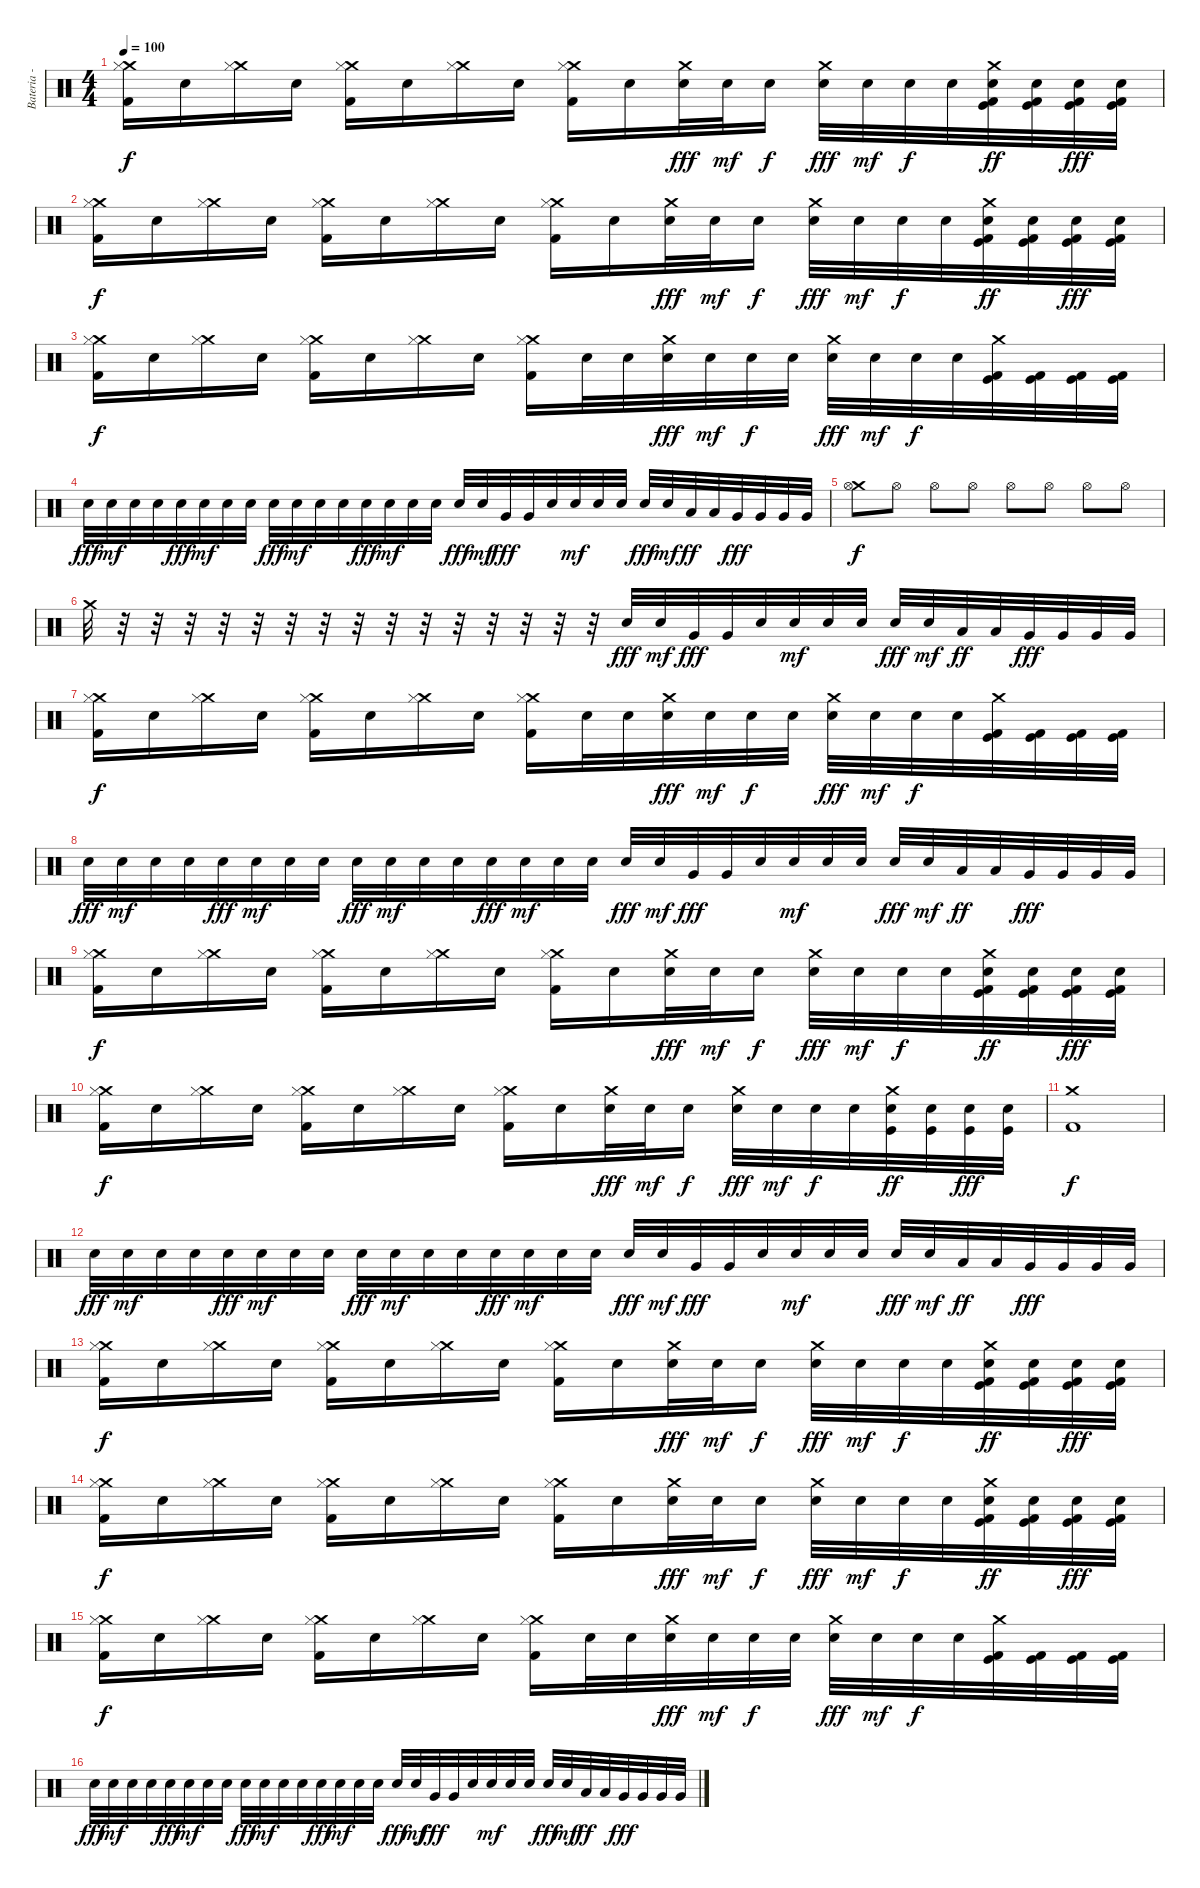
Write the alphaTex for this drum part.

\track ("Bateria - Drums - Searching after F Mike" "Bateria - ") {instrument percussion}
\staff {score}
\articulation defaults
\ts (4 4)
\tempo 100
\clef neutral
\ks c
("Crash medium (hit)" "Hi-Hat (closed)" "Kick (hit) 2").16{dy f} "Electric Snare (hit)".16 ("Crash medium (hit)" "Hi-Hat (closed)").16 "Electric Snare (hit)".16 ("Crash medium (hit)" "Hi-Hat (closed)" "Kick (hit) 2").16 "Electric Snare (hit)".16 ("Crash medium (hit)" "Hi-Hat (closed)").16 "Electric Snare (hit)".16 ("Crash medium (hit)" "Hi-Hat (closed)" "Kick (hit) 2").16 "Electric Snare (hit)".16 ("Crash medium (hit)" "Electric Snare (hit)").32{dy fff} "Electric Snare (hit)".32{dy mf} "Electric Snare (hit)".16{dy f} ("Crash medium (hit)" "Electric Snare (hit)").32{dy fff} "Electric Snare (hit)".32{dy mf} "Electric Snare (hit)".32{dy f} "Electric Snare (hit)".32 ("Crash medium (hit)" "Kick (hit) 2" "Electric Snare (hit)" "Kick (hit)").32{dy ff} ("Kick (hit) 2" "Electric Snare (hit)" "Kick (hit)").32 ("Kick (hit) 2" "Electric Snare (hit)" "Kick (hit)").32{dy fff} ("Kick (hit) 2" "Electric Snare (hit)" "Kick (hit)").32 |
("Crash medium (hit)" "Hi-Hat (closed)" "Kick (hit) 2").16{dy f} "Electric Snare (hit)".16 ("Crash medium (hit)" "Hi-Hat (closed)").16 "Electric Snare (hit)".16 ("Crash medium (hit)" "Hi-Hat (closed)" "Kick (hit) 2").16 "Electric Snare (hit)".16 ("Crash medium (hit)" "Hi-Hat (closed)").16 "Electric Snare (hit)".16 ("Crash medium (hit)" "Hi-Hat (closed)" "Kick (hit) 2").16 "Electric Snare (hit)".16 ("Crash medium (hit)" "Electric Snare (hit)").32{dy fff} "Electric Snare (hit)".32{dy mf} "Electric Snare (hit)".16{dy f} ("Crash medium (hit)" "Electric Snare (hit)").32{dy fff} "Electric Snare (hit)".32{dy mf} "Electric Snare (hit)".32{dy f} "Electric Snare (hit)".32 ("Crash medium (hit)" "Kick (hit) 2" "Electric Snare (hit)" "Kick (hit)").32{dy ff} ("Kick (hit) 2" "Electric Snare (hit)" "Kick (hit)").32 ("Kick (hit) 2" "Electric Snare (hit)" "Kick (hit)").32{dy fff} ("Kick (hit) 2" "Electric Snare (hit)" "Kick (hit)").32 |
("Crash medium (hit)" "Hi-Hat (closed)" "Kick (hit) 2").16{dy f} "Electric Snare (hit)".16 ("Crash medium (hit)" "Hi-Hat (closed)").16 "Electric Snare (hit)".16 ("Crash medium (hit)" "Hi-Hat (closed)" "Kick (hit) 2").16 "Electric Snare (hit)".16 ("Crash medium (hit)" "Hi-Hat (closed)").16 "Electric Snare (hit)".16 ("Crash medium (hit)" "Hi-Hat (closed)" "Kick (hit) 2").16 "Electric Snare (hit)".32 "Electric Snare (hit)".32 ("Crash medium (hit)" "Electric Snare (hit)").32{dy fff} "Electric Snare (hit)".32{dy mf} "Electric Snare (hit)".32{dy f} "Electric Snare (hit)".32 ("Crash medium (hit)" "Electric Snare (hit)").32{dy fff} "Electric Snare (hit)".32{dy mf} "Electric Snare (hit)".32{dy f} "Electric Snare (hit)".32 ("Crash medium (hit)" "Kick (hit) 2" "Kick (hit)").32 ("Kick (hit) 2" "Kick (hit)").32 ("Kick (hit) 2" "Kick (hit)").32 ("Kick (hit) 2" "Kick (hit)").32 |
"Electric Snare (hit)".32{dy fff} "Electric Snare (hit)".32{dy mf} "Electric Snare (hit)".32 "Electric Snare (hit)".32 "Electric Snare (hit)".32{dy fff} "Electric Snare (hit)".32{dy mf} "Electric Snare (hit)".32 "Electric Snare (hit)".32 "Electric Snare (hit)".32{dy fff} "Electric Snare (hit)".32{dy mf} "Electric Snare (hit)".32 "Electric Snare (hit)".32 "Electric Snare (hit)".32{dy fff} "Electric Snare (hit)".32{dy mf} "Electric Snare (hit)".32 "Electric Snare (hit)".32 "Electric Snare (hit)".32{dy fff} "Electric Snare (hit)".32{dy mf} "Very Low Tom (hit)".32{dy fff} "Very Low Tom (hit)".32 "Electric Snare (hit)".32 "Electric Snare (hit)".32{dy mf} "Electric Snare (hit)".32 "Electric Snare (hit)".32 "Electric Snare (hit)".32{dy fff} "Electric Snare (hit)".32{dy mf} "Low Tom (hit)".32{dy ff} "Low Tom (hit)".32 "Very Low Tom (hit)".32{dy fff} "Very Low Tom (hit)".32 "Very Low Tom (hit)".32 "Very Low Tom (hit)".32 |
("Crash medium (hit)" "Hi-Hat (open)").8{dy f} "Hi-Hat (open)".8 "Hi-Hat (open)".8 "Hi-Hat (open)".8 "Hi-Hat (open)".8 "Hi-Hat (open)".8 "Hi-Hat (open)".8 "Hi-Hat (open)".8 |
"Crash medium (hit)".32 r.32 r.32 r.32 r.32 r.32 r.32 r.32 r.32 r.32 r.32 r.32 r.32 r.32 r.32 r.32 "Electric Snare (hit)".32{dy fff} "Electric Snare (hit)".32{dy mf} "Very Low Tom (hit)".32{dy fff} "Very Low Tom (hit)".32 "Electric Snare (hit)".32 "Electric Snare (hit)".32{dy mf} "Electric Snare (hit)".32 "Electric Snare (hit)".32 "Electric Snare (hit)".32{dy fff} "Electric Snare (hit)".32{dy mf} "Low Tom (hit)".32{dy ff} "Low Tom (hit)".32 "Very Low Tom (hit)".32{dy fff} "Very Low Tom (hit)".32 "Very Low Tom (hit)".32 "Very Low Tom (hit)".32 |
("Crash medium (hit)" "Hi-Hat (closed)" "Kick (hit) 2").16{dy f} "Electric Snare (hit)".16 ("Crash medium (hit)" "Hi-Hat (closed)").16 "Electric Snare (hit)".16 ("Crash medium (hit)" "Hi-Hat (closed)" "Kick (hit) 2").16 "Electric Snare (hit)".16 ("Crash medium (hit)" "Hi-Hat (closed)").16 "Electric Snare (hit)".16 ("Crash medium (hit)" "Hi-Hat (closed)" "Kick (hit) 2").16 "Electric Snare (hit)".32 "Electric Snare (hit)".32 ("Crash medium (hit)" "Electric Snare (hit)").32{dy fff} "Electric Snare (hit)".32{dy mf} "Electric Snare (hit)".32{dy f} "Electric Snare (hit)".32 ("Crash medium (hit)" "Electric Snare (hit)").32{dy fff} "Electric Snare (hit)".32{dy mf} "Electric Snare (hit)".32{dy f} "Electric Snare (hit)".32 ("Crash medium (hit)" "Kick (hit) 2" "Kick (hit)").32 ("Kick (hit) 2" "Kick (hit)").32 ("Kick (hit) 2" "Kick (hit)").32 ("Kick (hit) 2" "Kick (hit)").32 |
"Electric Snare (hit)".32{dy fff} "Electric Snare (hit)".32{dy mf} "Electric Snare (hit)".32 "Electric Snare (hit)".32 "Electric Snare (hit)".32{dy fff} "Electric Snare (hit)".32{dy mf} "Electric Snare (hit)".32 "Electric Snare (hit)".32 "Electric Snare (hit)".32{dy fff} "Electric Snare (hit)".32{dy mf} "Electric Snare (hit)".32 "Electric Snare (hit)".32 "Electric Snare (hit)".32{dy fff} "Electric Snare (hit)".32{dy mf} "Electric Snare (hit)".32 "Electric Snare (hit)".32 "Electric Snare (hit)".32{dy fff} "Electric Snare (hit)".32{dy mf} "Very Low Tom (hit)".32{dy fff} "Very Low Tom (hit)".32 "Electric Snare (hit)".32 "Electric Snare (hit)".32{dy mf} "Electric Snare (hit)".32 "Electric Snare (hit)".32 "Electric Snare (hit)".32{dy fff} "Electric Snare (hit)".32{dy mf} "Low Tom (hit)".32{dy ff} "Low Tom (hit)".32 "Very Low Tom (hit)".32{dy fff} "Very Low Tom (hit)".32 "Very Low Tom (hit)".32 "Very Low Tom (hit)".32 |
("Crash medium (hit)" "Hi-Hat (closed)" "Kick (hit) 2").16{dy f} "Electric Snare (hit)".16 ("Crash medium (hit)" "Hi-Hat (closed)").16 "Electric Snare (hit)".16 ("Crash medium (hit)" "Hi-Hat (closed)" "Kick (hit) 2").16 "Electric Snare (hit)".16 ("Crash medium (hit)" "Hi-Hat (closed)").16 "Electric Snare (hit)".16 ("Crash medium (hit)" "Hi-Hat (closed)" "Kick (hit) 2").16 "Electric Snare (hit)".16 ("Crash medium (hit)" "Electric Snare (hit)").32{dy fff} "Electric Snare (hit)".32{dy mf} "Electric Snare (hit)".16{dy f} ("Crash medium (hit)" "Electric Snare (hit)").32{dy fff} "Electric Snare (hit)".32{dy mf} "Electric Snare (hit)".32{dy f} "Electric Snare (hit)".32 ("Crash medium (hit)" "Kick (hit) 2" "Electric Snare (hit)" "Kick (hit)").32{dy ff} ("Kick (hit) 2" "Electric Snare (hit)" "Kick (hit)").32 ("Kick (hit) 2" "Electric Snare (hit)" "Kick (hit)").32{dy fff} ("Kick (hit) 2" "Electric Snare (hit)" "Kick (hit)").32 |
("Crash medium (hit)" "Hi-Hat (closed)" "Kick (hit) 2").16{dy f} "Electric Snare (hit)".16 ("Crash medium (hit)" "Hi-Hat (closed)").16 "Electric Snare (hit)".16 ("Crash medium (hit)" "Hi-Hat (closed)" "Kick (hit) 2").16 "Electric Snare (hit)".16 ("Crash medium (hit)" "Hi-Hat (closed)").16 "Electric Snare (hit)".16 ("Crash medium (hit)" "Hi-Hat (closed)" "Kick (hit) 2").16 "Electric Snare (hit)".16 ("Crash medium (hit)" "Electric Snare (hit)").32{dy fff} "Electric Snare (hit)".32{dy mf} "Electric Snare (hit)".16{dy f} ("Crash medium (hit)" "Electric Snare (hit)").32{dy fff} "Electric Snare (hit)".32{dy mf} "Electric Snare (hit)".32{dy f} "Electric Snare (hit)".32 ("Crash medium (hit)" "Electric Snare (hit)" "Kick (hit)").32{dy ff} ("Electric Snare (hit)" "Kick (hit)").32 ("Electric Snare (hit)" "Kick (hit)").32{dy fff} ("Electric Snare (hit)" "Kick (hit)").32 |
("Crash medium (hit)" "Kick (hit) 2").1{dy f} |
"Electric Snare (hit)".32{dy fff} "Electric Snare (hit)".32{dy mf} "Electric Snare (hit)".32 "Electric Snare (hit)".32 "Electric Snare (hit)".32{dy fff} "Electric Snare (hit)".32{dy mf} "Electric Snare (hit)".32 "Electric Snare (hit)".32 "Electric Snare (hit)".32{dy fff} "Electric Snare (hit)".32{dy mf} "Electric Snare (hit)".32 "Electric Snare (hit)".32 "Electric Snare (hit)".32{dy fff} "Electric Snare (hit)".32{dy mf} "Electric Snare (hit)".32 "Electric Snare (hit)".32 "Electric Snare (hit)".32{dy fff} "Electric Snare (hit)".32{dy mf} "Very Low Tom (hit)".32{dy fff} "Very Low Tom (hit)".32 "Electric Snare (hit)".32 "Electric Snare (hit)".32{dy mf} "Electric Snare (hit)".32 "Electric Snare (hit)".32 "Electric Snare (hit)".32{dy fff} "Electric Snare (hit)".32{dy mf} "Low Tom (hit)".32{dy ff} "Low Tom (hit)".32 "Very Low Tom (hit)".32{dy fff} "Very Low Tom (hit)".32 "Very Low Tom (hit)".32 "Very Low Tom (hit)".32 |
("Crash medium (hit)" "Hi-Hat (closed)" "Kick (hit) 2").16{dy f} "Electric Snare (hit)".16 ("Crash medium (hit)" "Hi-Hat (closed)").16 "Electric Snare (hit)".16 ("Crash medium (hit)" "Hi-Hat (closed)" "Kick (hit) 2").16 "Electric Snare (hit)".16 ("Crash medium (hit)" "Hi-Hat (closed)").16 "Electric Snare (hit)".16 ("Crash medium (hit)" "Hi-Hat (closed)" "Kick (hit) 2").16 "Electric Snare (hit)".16 ("Crash medium (hit)" "Electric Snare (hit)").32{dy fff} "Electric Snare (hit)".32{dy mf} "Electric Snare (hit)".16{dy f} ("Crash medium (hit)" "Electric Snare (hit)").32{dy fff} "Electric Snare (hit)".32{dy mf} "Electric Snare (hit)".32{dy f} "Electric Snare (hit)".32 ("Crash medium (hit)" "Kick (hit) 2" "Electric Snare (hit)" "Kick (hit)").32{dy ff} ("Kick (hit) 2" "Electric Snare (hit)" "Kick (hit)").32 ("Kick (hit) 2" "Electric Snare (hit)" "Kick (hit)").32{dy fff} ("Kick (hit) 2" "Electric Snare (hit)" "Kick (hit)").32 |
("Crash medium (hit)" "Hi-Hat (closed)" "Kick (hit) 2").16{dy f} "Electric Snare (hit)".16 ("Crash medium (hit)" "Hi-Hat (closed)").16 "Electric Snare (hit)".16 ("Crash medium (hit)" "Hi-Hat (closed)" "Kick (hit) 2").16 "Electric Snare (hit)".16 ("Crash medium (hit)" "Hi-Hat (closed)").16 "Electric Snare (hit)".16 ("Crash medium (hit)" "Hi-Hat (closed)" "Kick (hit) 2").16 "Electric Snare (hit)".16 ("Crash medium (hit)" "Electric Snare (hit)").32{dy fff} "Electric Snare (hit)".32{dy mf} "Electric Snare (hit)".16{dy f} ("Crash medium (hit)" "Electric Snare (hit)").32{dy fff} "Electric Snare (hit)".32{dy mf} "Electric Snare (hit)".32{dy f} "Electric Snare (hit)".32 ("Crash medium (hit)" "Kick (hit) 2" "Electric Snare (hit)" "Kick (hit)").32{dy ff} ("Kick (hit) 2" "Electric Snare (hit)" "Kick (hit)").32 ("Kick (hit) 2" "Electric Snare (hit)" "Kick (hit)").32{dy fff} ("Kick (hit) 2" "Electric Snare (hit)" "Kick (hit)").32 |
("Crash medium (hit)" "Hi-Hat (closed)" "Kick (hit) 2").16{dy f} "Electric Snare (hit)".16 ("Crash medium (hit)" "Hi-Hat (closed)").16 "Electric Snare (hit)".16 ("Crash medium (hit)" "Hi-Hat (closed)" "Kick (hit) 2").16 "Electric Snare (hit)".16 ("Crash medium (hit)" "Hi-Hat (closed)").16 "Electric Snare (hit)".16 ("Crash medium (hit)" "Hi-Hat (closed)" "Kick (hit) 2").16 "Electric Snare (hit)".32 "Electric Snare (hit)".32 ("Crash medium (hit)" "Electric Snare (hit)").32{dy fff} "Electric Snare (hit)".32{dy mf} "Electric Snare (hit)".32{dy f} "Electric Snare (hit)".32 ("Crash medium (hit)" "Electric Snare (hit)").32{dy fff} "Electric Snare (hit)".32{dy mf} "Electric Snare (hit)".32{dy f} "Electric Snare (hit)".32 ("Crash medium (hit)" "Kick (hit) 2" "Kick (hit)").32 ("Kick (hit) 2" "Kick (hit)").32 ("Kick (hit) 2" "Kick (hit)").32 ("Kick (hit) 2" "Kick (hit)").32 |
"Electric Snare (hit)".32{dy fff} "Electric Snare (hit)".32{dy mf} "Electric Snare (hit)".32 "Electric Snare (hit)".32 "Electric Snare (hit)".32{dy fff} "Electric Snare (hit)".32{dy mf} "Electric Snare (hit)".32 "Electric Snare (hit)".32 "Electric Snare (hit)".32{dy fff} "Electric Snare (hit)".32{dy mf} "Electric Snare (hit)".32 "Electric Snare (hit)".32 "Electric Snare (hit)".32{dy fff} "Electric Snare (hit)".32{dy mf} "Electric Snare (hit)".32 "Electric Snare (hit)".32 "Electric Snare (hit)".32{dy fff} "Electric Snare (hit)".32{dy mf} "Very Low Tom (hit)".32{dy fff} "Very Low Tom (hit)".32 "Electric Snare (hit)".32 "Electric Snare (hit)".32{dy mf} "Electric Snare (hit)".32 "Electric Snare (hit)".32 "Electric Snare (hit)".32{dy fff} "Electric Snare (hit)".32{dy mf} "Low Tom (hit)".32{dy ff} "Low Tom (hit)".32 "Very Low Tom (hit)".32{dy fff} "Very Low Tom (hit)".32 "Very Low Tom (hit)".32 "Very Low Tom (hit)".32
